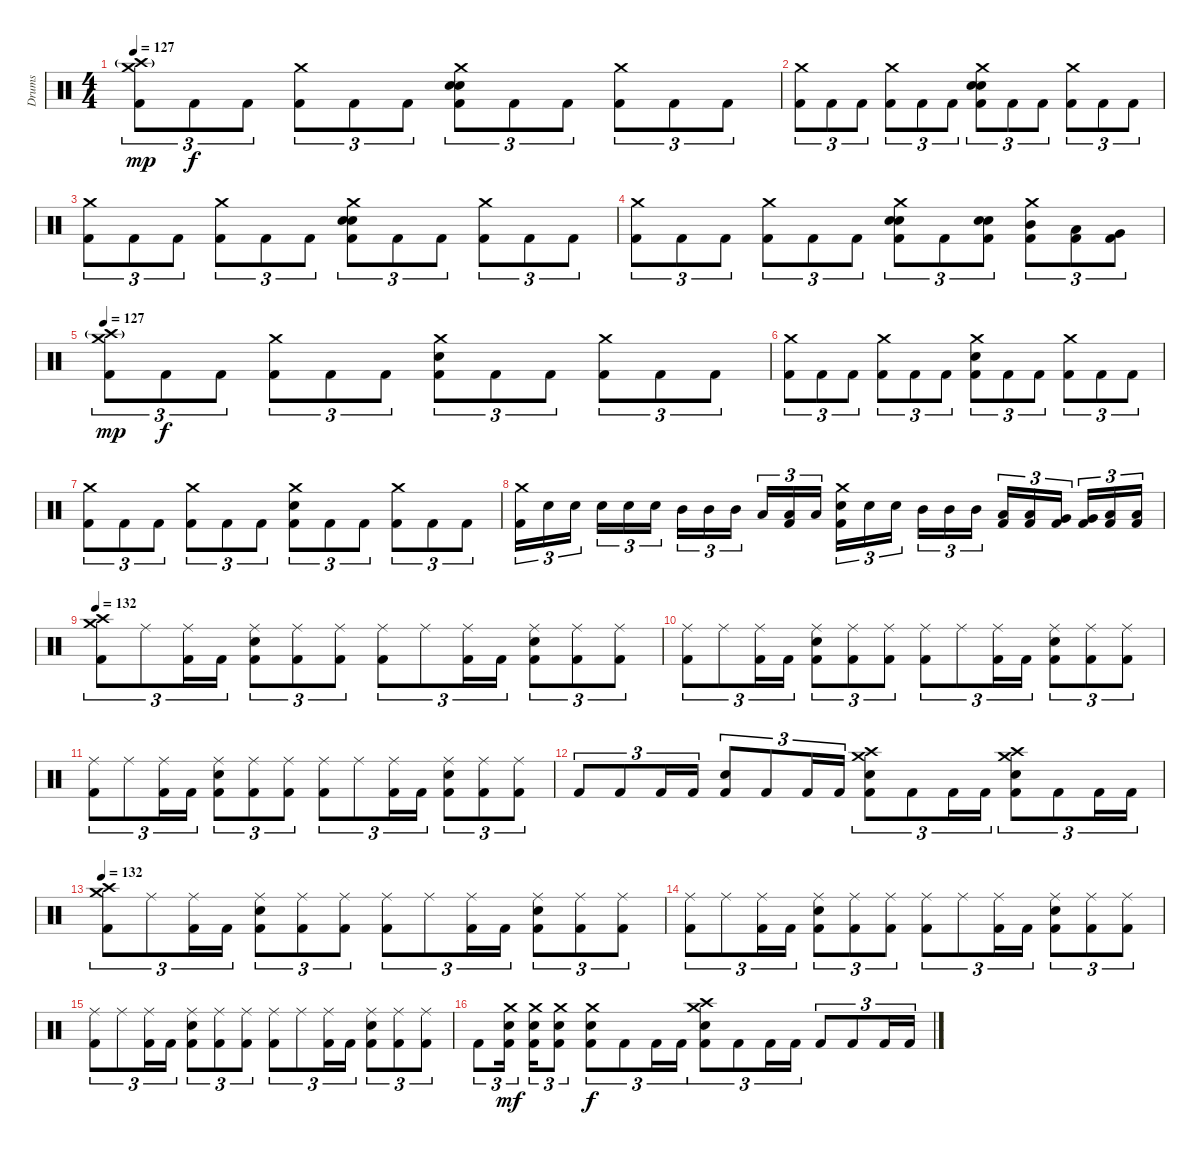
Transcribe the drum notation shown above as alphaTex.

\track ("Drums" "Drums") {instrument percussion}
\staff {score}
\articulation defaults
\ts (4 4)
\tempo 127
\clef neutral
\ks c
("Crash high (hit)"{g} "Crash medium (hit)" "Kick (hit) 2").8{tu (3 2) dy mp} "Kick (hit) 2".8{tu (3 2) dy f} "Kick (hit) 2".8{tu (3 2)} ("Crash medium (hit)" "Kick (hit) 2").8{tu (3 2)} "Kick (hit) 2".8{tu (3 2)} "Kick (hit) 2".8{tu (3 2)} ("Crash medium (hit)" "Electric Snare (hit)" "Snare (hit) 2" "Kick (hit) 2").8{tu (3 2)} "Kick (hit) 2".8{tu (3 2)} "Kick (hit) 2".8{tu (3 2)} ("Crash medium (hit)" "Kick (hit) 2").8{tu (3 2)} "Kick (hit) 2".8{tu (3 2)} "Kick (hit) 2".8{tu (3 2)} |
("Crash medium (hit)" "Kick (hit) 2").8{tu (3 2)} "Kick (hit) 2".8{tu (3 2)} "Kick (hit) 2".8{tu (3 2)} ("Crash medium (hit)" "Kick (hit) 2").8{tu (3 2)} "Kick (hit) 2".8{tu (3 2)} "Kick (hit) 2".8{tu (3 2)} ("Crash medium (hit)" "Electric Snare (hit)" "Snare (hit) 2" "Kick (hit) 2").8{tu (3 2)} "Kick (hit) 2".8{tu (3 2)} "Kick (hit) 2".8{tu (3 2)} ("Crash medium (hit)" "Kick (hit) 2").8{tu (3 2)} "Kick (hit) 2".8{tu (3 2)} "Kick (hit) 2".8{tu (3 2)} |
("Crash medium (hit)" "Kick (hit) 2").8{tu (3 2)} "Kick (hit) 2".8{tu (3 2)} "Kick (hit) 2".8{tu (3 2)} ("Crash medium (hit)" "Kick (hit) 2").8{tu (3 2)} "Kick (hit) 2".8{tu (3 2)} "Kick (hit) 2".8{tu (3 2)} ("Crash medium (hit)" "Electric Snare (hit)" "Snare (hit) 2" "Kick (hit) 2").8{tu (3 2)} "Kick (hit) 2".8{tu (3 2)} "Kick (hit) 2".8{tu (3 2)} ("Crash medium (hit)" "Kick (hit) 2").8{tu (3 2)} "Kick (hit) 2".8{tu (3 2)} "Kick (hit) 2".8{tu (3 2)} |
("Crash medium (hit)" "Kick (hit) 2").8{tu (3 2)} "Kick (hit) 2".8{tu (3 2)} "Kick (hit) 2".8{tu (3 2)} ("Crash medium (hit)" "Kick (hit) 2").8{tu (3 2)} "Kick (hit) 2".8{tu (3 2)} "Kick (hit) 2".8{tu (3 2)} ("Crash medium (hit)" "Electric Snare (hit)" "Snare (hit) 2" "Kick (hit) 2").8{tu (3 2)} "Kick (hit) 2".8{tu (3 2)} ("Electric Snare (hit)" "Snare (hit) 2" "Kick (hit) 2").8{tu (3 2)} ("Crash medium (hit)" "Mid Tom (hit)" "Kick (hit) 2").8{tu (3 2)} ("Low Tom (hit)" "Kick (hit) 2").8{tu (3 2)} ("Very Low Tom (hit)" "Kick (hit) 2").8{tu (3 2)} |
\tempo 127
("Crash high (hit)"{g} "Crash medium (hit)" "Kick (hit) 2").8{tu (3 2) dy mp} "Kick (hit) 2".8{tu (3 2) dy f} "Kick (hit) 2".8{tu (3 2)} ("Crash medium (hit)" "Kick (hit) 2").8{tu (3 2)} "Kick (hit) 2".8{tu (3 2)} "Kick (hit) 2".8{tu (3 2)} ("Crash medium (hit)" "Snare (hit) 2" "Kick (hit) 2").8{tu (3 2)} "Kick (hit) 2".8{tu (3 2)} "Kick (hit) 2".8{tu (3 2)} ("Crash medium (hit)" "Kick (hit) 2").8{tu (3 2)} "Kick (hit) 2".8{tu (3 2)} "Kick (hit) 2".8{tu (3 2)} |
("Crash medium (hit)" "Kick (hit) 2").8{tu (3 2)} "Kick (hit) 2".8{tu (3 2)} "Kick (hit) 2".8{tu (3 2)} ("Crash medium (hit)" "Kick (hit) 2").8{tu (3 2)} "Kick (hit) 2".8{tu (3 2)} "Kick (hit) 2".8{tu (3 2)} ("Crash medium (hit)" "Snare (hit) 2" "Kick (hit) 2").8{tu (3 2)} "Kick (hit) 2".8{tu (3 2)} "Kick (hit) 2".8{tu (3 2)} ("Crash medium (hit)" "Kick (hit) 2").8{tu (3 2)} "Kick (hit) 2".8{tu (3 2)} "Kick (hit) 2".8{tu (3 2)} |
("Crash medium (hit)" "Kick (hit) 2").8{tu (3 2)} "Kick (hit) 2".8{tu (3 2)} "Kick (hit) 2".8{tu (3 2)} ("Crash medium (hit)" "Kick (hit) 2").8{tu (3 2)} "Kick (hit) 2".8{tu (3 2)} "Kick (hit) 2".8{tu (3 2)} ("Crash medium (hit)" "Snare (hit) 2" "Kick (hit) 2").8{tu (3 2)} "Kick (hit) 2".8{tu (3 2)} "Kick (hit) 2".8{tu (3 2)} ("Crash medium (hit)" "Kick (hit) 2").8{tu (3 2)} "Kick (hit) 2".8{tu (3 2)} "Kick (hit) 2".8{tu (3 2)} |
("Crash medium (hit)" "Kick (hit) 2").16{tu (3 2)} "Snare (hit) 2".16{tu (3 2)} "Snare (hit) 2".16{tu (3 2)} "Snare (hit) 2".16{tu (3 2)} "Snare (hit) 2".16{tu (3 2)} "Snare (hit) 2".16{tu (3 2)} "Mid Tom (hit)".16{tu (3 2)} "Mid Tom (hit)".16{tu (3 2)} "Mid Tom (hit)".16{tu (3 2)} "Low Tom (hit)".16{tu (3 2)} ("Low Tom (hit)" "Kick (hit) 2").16{tu (3 2)} "Low Tom (hit)".16{tu (3 2)} ("Crash medium (hit)" "Snare (hit) 2" "Kick (hit) 2").16{tu (3 2)} "Snare (hit) 2".16{tu (3 2)} "Snare (hit) 2".16{tu (3 2)} "Mid Tom (hit)".16{tu (3 2)} "Mid Tom (hit)".16{tu (3 2)} "Mid Tom (hit)".16{tu (3 2)} ("Low Tom (hit)" "Kick (hit) 2").16{tu (3 2)} ("Low Tom (hit)" "Kick (hit) 2").16{tu (3 2)} ("Very Low Tom (hit)" "Kick (hit) 2").16{tu (3 2)} ("Very Low Tom (hit)" "Kick (hit) 2").16{tu (3 2)} ("Low Floor Tom (hit)" "Kick (hit) 2").16{tu (3 2)} ("Low Floor Tom (hit)" "Kick (hit) 2").16{tu (3 2)} |
\tempo 132
("Crash high (hit)" "Crash medium (hit)" "Kick (hit) 2").8{tu (3 2)} "Ride (middle)".8{tu (3 2)} ("Ride (middle)" "Kick (hit) 2").16{tu (3 2)} "Kick (hit) 2".16{tu (3 2)} ("Ride (middle)" "Snare (hit) 2" "Kick (hit) 2").8{tu (3 2)} ("Ride (middle)" "Kick (hit) 2").8{tu (3 2)} ("Ride (middle)" "Kick (hit) 2").8{tu (3 2)} ("Ride (middle)" "Kick (hit) 2").8{tu (3 2)} "Ride (middle)".8{tu (3 2)} ("Ride (middle)" "Kick (hit) 2").16{tu (3 2)} "Kick (hit) 2".16{tu (3 2)} ("Ride (middle)" "Snare (hit) 2" "Kick (hit) 2").8{tu (3 2)} ("Ride (middle)" "Kick (hit) 2").8{tu (3 2)} ("Ride (middle)" "Kick (hit) 2").8{tu (3 2)} |
("Ride (middle)" "Kick (hit) 2").8{tu (3 2)} "Ride (middle)".8{tu (3 2)} ("Ride (middle)" "Kick (hit) 2").16{tu (3 2)} "Kick (hit) 2".16{tu (3 2)} ("Ride (middle)" "Snare (hit) 2" "Kick (hit) 2").8{tu (3 2)} ("Ride (middle)" "Kick (hit) 2").8{tu (3 2)} ("Ride (middle)" "Kick (hit) 2").8{tu (3 2)} ("Ride (middle)" "Kick (hit) 2").8{tu (3 2)} "Ride (middle)".8{tu (3 2)} ("Ride (middle)" "Kick (hit) 2").16{tu (3 2)} "Kick (hit) 2".16{tu (3 2)} ("Ride (middle)" "Snare (hit) 2" "Kick (hit) 2").8{tu (3 2)} ("Ride (middle)" "Kick (hit) 2").8{tu (3 2)} ("Ride (middle)" "Kick (hit) 2").8{tu (3 2)} |
("Ride (middle)" "Kick (hit) 2").8{tu (3 2)} "Ride (middle)".8{tu (3 2)} ("Ride (middle)" "Kick (hit) 2").16{tu (3 2)} "Kick (hit) 2".16{tu (3 2)} ("Ride (middle)" "Snare (hit) 2" "Kick (hit) 2").8{tu (3 2)} ("Ride (middle)" "Kick (hit) 2").8{tu (3 2)} ("Ride (middle)" "Kick (hit) 2").8{tu (3 2)} ("Ride (middle)" "Kick (hit) 2").8{tu (3 2)} "Ride (middle)".8{tu (3 2)} ("Ride (middle)" "Kick (hit) 2").16{tu (3 2)} "Kick (hit) 2".16{tu (3 2)} ("Ride (middle)" "Snare (hit) 2" "Kick (hit) 2").8{tu (3 2)} ("Ride (middle)" "Kick (hit) 2").8{tu (3 2)} ("Ride (middle)" "Kick (hit) 2").8{tu (3 2)} |
"Kick (hit) 2".8{tu (3 2)} "Kick (hit) 2".8{tu (3 2)} "Kick (hit) 2".16{tu (3 2)} "Kick (hit) 2".16{tu (3 2)} ("Snare (hit) 2" "Kick (hit) 2").8{tu (3 2)} "Kick (hit) 2".8{tu (3 2)} "Kick (hit) 2".16{tu (3 2)} "Kick (hit) 2".16{tu (3 2)} ("Crash high (hit)" "Crash medium (hit)" "Snare (hit) 2" "Kick (hit) 2").8{tu (3 2)} "Kick (hit) 2".8{tu (3 2)} "Kick (hit) 2".16{tu (3 2)} "Kick (hit) 2".16{tu (3 2)} ("Crash high (hit)" "Crash medium (hit)" "Snare (hit) 2" "Kick (hit) 2").8{tu (3 2)} "Kick (hit) 2".8{tu (3 2)} "Kick (hit) 2".16{tu (3 2)} "Kick (hit) 2".16{tu (3 2)} |
\tempo 132
("Crash high (hit)" "Crash medium (hit)" "Kick (hit) 2").8{tu (3 2) volume 15} "Ride (middle)".8{tu (3 2)} ("Ride (middle)" "Kick (hit) 2").16{tu (3 2)} "Kick (hit) 2".16{tu (3 2)} ("Ride (middle)" "Snare (hit) 2" "Kick (hit) 2").8{tu (3 2)} ("Ride (middle)" "Kick (hit) 2").8{tu (3 2)} ("Ride (middle)" "Kick (hit) 2").8{tu (3 2)} ("Ride (middle)" "Kick (hit) 2").8{tu (3 2)} "Ride (middle)".8{tu (3 2)} ("Ride (middle)" "Kick (hit) 2").16{tu (3 2)} "Kick (hit) 2".16{tu (3 2)} ("Ride (middle)" "Snare (hit) 2" "Kick (hit) 2").8{tu (3 2)} ("Ride (middle)" "Kick (hit) 2").8{tu (3 2)} ("Ride (middle)" "Kick (hit) 2").8{tu (3 2)} |
("Ride (middle)" "Kick (hit) 2").8{tu (3 2)} "Ride (middle)".8{tu (3 2)} ("Ride (middle)" "Kick (hit) 2").16{tu (3 2)} "Kick (hit) 2".16{tu (3 2)} ("Ride (middle)" "Snare (hit) 2" "Kick (hit) 2").8{tu (3 2)} ("Ride (middle)" "Kick (hit) 2").8{tu (3 2)} ("Ride (middle)" "Kick (hit) 2").8{tu (3 2)} ("Ride (middle)" "Kick (hit) 2").8{tu (3 2)} "Ride (middle)".8{tu (3 2)} ("Ride (middle)" "Kick (hit) 2").16{tu (3 2)} "Kick (hit) 2".16{tu (3 2)} ("Ride (middle)" "Snare (hit) 2" "Kick (hit) 2").8{tu (3 2)} ("Ride (middle)" "Kick (hit) 2").8{tu (3 2)} ("Ride (middle)" "Kick (hit) 2").8{tu (3 2)} |
("Ride (middle)" "Kick (hit) 2").8{tu (3 2)} "Ride (middle)".8{tu (3 2)} ("Ride (middle)" "Kick (hit) 2").16{tu (3 2)} "Kick (hit) 2".16{tu (3 2)} ("Ride (middle)" "Snare (hit) 2" "Kick (hit) 2").8{tu (3 2)} ("Ride (middle)" "Kick (hit) 2").8{tu (3 2)} ("Ride (middle)" "Kick (hit) 2").8{tu (3 2)} ("Ride (middle)" "Kick (hit) 2").8{tu (3 2)} "Ride (middle)".8{tu (3 2)} ("Ride (middle)" "Kick (hit) 2").16{tu (3 2)} "Kick (hit) 2".16{tu (3 2)} ("Ride (middle)" "Snare (hit) 2" "Kick (hit) 2").8{tu (3 2)} ("Ride (middle)" "Kick (hit) 2").8{tu (3 2)} ("Ride (middle)" "Kick (hit) 2").8{tu (3 2)} |
"Kick (hit) 2".8{tu (3 2)} ("Crash medium (hit)" "Snare (hit) 2" "Kick (hit) 2").16{tu (3 2) dy mf} ("Crash medium (hit)" "Snare (hit) 2" "Kick (hit) 2").16{tu (3 2)} ("Crash medium (hit)" "Snare (hit) 2" "Kick (hit) 2").8{tu (3 2)} ("Crash medium (hit)" "Snare (hit) 2" "Kick (hit) 2").8{tu (3 2) dy f} "Kick (hit) 2".8{tu (3 2)} "Kick (hit) 2".16{tu (3 2)} "Kick (hit) 2".16{tu (3 2)} ("Crash high (hit)" "Crash medium (hit)" "Snare (hit) 2" "Kick (hit) 2").8{tu (3 2)} "Kick (hit) 2".8{tu (3 2)} "Kick (hit) 2".16{tu (3 2)} "Kick (hit) 2".16{tu (3 2)} "Kick (hit) 2".8{tu (3 2)} "Kick (hit) 2".8{tu (3 2)} "Kick (hit) 2".16{tu (3 2)} "Kick (hit) 2".16{tu (3 2)}
